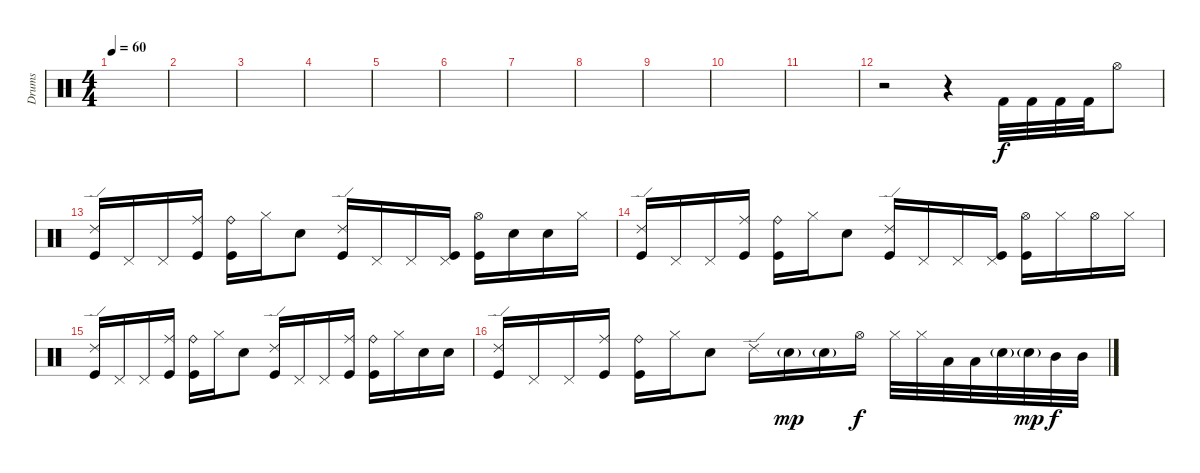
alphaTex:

\track ("Drums" "Drums") {instrument percussion}
\staff {score}
\articulation defaults
\ts (4 4)
\tempo 60
\clef neutral
\ks c
|
|
|
|
|
|
|
|
|
|
|
r.2 r.4 "Kick (hit) 2".32 "Kick (hit) 2".32 "Kick (hit) 2".32 "Kick (hit) 2".32 "Hi-Hat (open)".8 |
("Ride (edge) 2" "Kick (hit)").16 "Pedal Hi-Hat (hit)".16 "Pedal Hi-Hat (hit)".16 ("Ride (middle)" "Kick (hit)").16 ("Ride (bell)" "Kick (hit)").16 "Hi-Hat (closed)".16 "Electric Snare (hit)".8 ("Ride (edge) 2" "Kick (hit)").16 "Pedal Hi-Hat (hit)".16 "Pedal Hi-Hat (hit)".16 ("Pedal Hi-Hat (hit)" "Kick (hit)").16 ("Hi-Hat (open)" "Kick (hit)").16 "Electric Snare (hit)".16 "Electric Snare (hit)".16 "Hi-Hat (closed)".16 |
("Ride (edge) 2" "Kick (hit)").16 "Pedal Hi-Hat (hit)".16 "Pedal Hi-Hat (hit)".16 ("Ride (middle)" "Kick (hit)").16 ("Ride (bell)" "Kick (hit)").16 "Hi-Hat (closed)".16 "Electric Snare (hit)".8 ("Ride (edge) 2" "Kick (hit)").16 "Pedal Hi-Hat (hit)".16 "Pedal Hi-Hat (hit)".16 ("Pedal Hi-Hat (hit)" "Kick (hit)").16 ("Hi-Hat (open)" "Kick (hit)").16 "Hi-Hat (closed)".16 "Hi-Hat (open)".16 "Hi-Hat (closed)".16 |
("Ride (edge) 2" "Kick (hit)").16 "Pedal Hi-Hat (hit)".16 "Pedal Hi-Hat (hit)".16 ("Ride (middle)" "Kick (hit)").16 ("Ride (bell)" "Kick (hit)").16 "Hi-Hat (closed)".16 "Electric Snare (hit)".8 ("Ride (edge) 2" "Kick (hit)").16 "Pedal Hi-Hat (hit)".16 "Pedal Hi-Hat (hit)".16 ("Ride (middle)" "Kick (hit)").16 ("Ride (bell)" "Kick (hit)").16 "Hi-Hat (closed)".16 "Electric Snare (hit)".16 "Electric Snare (hit)".16 |
("Ride (edge) 2" "Kick (hit)").16 "Pedal Hi-Hat (hit)".16 "Pedal Hi-Hat (hit)".16 ("Ride (middle)" "Kick (hit)").16 ("Ride (bell)" "Kick (hit)").16 "Hi-Hat (closed)".16 "Electric Snare (hit)".8 "Ride (edge) 2".16 "Electric Snare (hit)"{g}.16{dy mp} "Electric Snare (hit)"{g}.16 "Hi-Hat (open)".16{dy f} "Hi-Hat (closed)".32 "Hi-Hat (closed)".32 "Low Tom (hit)".32 "Low Tom (hit)".32 "Electric Snare (hit)"{g}.32 "Electric Snare (hit)"{g}.32{dy mp} "Mid Tom (hit)".32{dy f} "Mid Tom (hit)".32
